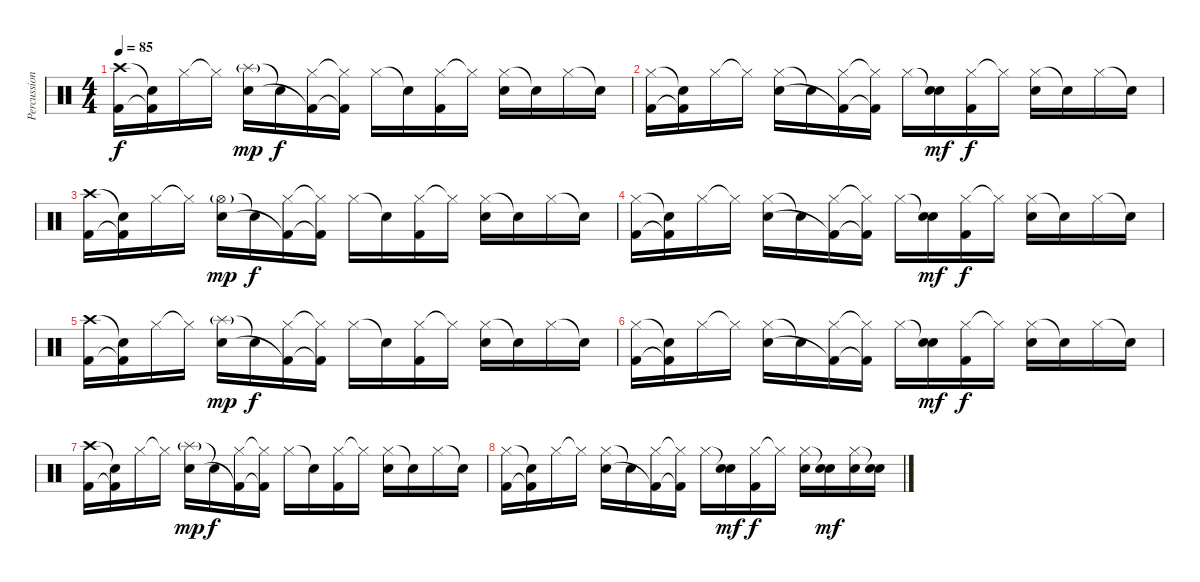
\track ("Percussion" "Percussion") {instrument percussion}
\staff {score}
\articulation defaults
\ts (4 4)
\tempo 85
\clef neutral
\ks c
("Crash high (hit)" "Kick (hit) 2").16{dy f} ("Snare (hit)"{t} "Kick (hit) 2"{t}).16 "Hi-Hat (closed)".16 "Hi-Hat (closed)"{t}.16 ("Splash (hit)"{g} "Snare (hit) 2").16{dy mp} "Snare (hit)"{t}.16{dy f} ("Hi-Hat (closed)" "Kick (hit) 2"{t}).16 ("Hi-Hat (closed)"{t} "Kick (hit) 2"{t}).16 "Hi-Hat (closed)".16 "Snare (hit)"{t}.16 ("Hi-Hat (closed)" "Kick (hit) 2").16 "Hi-Hat (closed)"{t}.16 ("Hi-Hat (closed)" "Snare (hit) 2").16 "Snare (hit)"{t}.16 "Hi-Hat (closed)".16 "Snare (hit)"{t}.16 |
("Hi-Hat (closed)" "Kick (hit) 2").16 ("Snare (hit)"{t} "Kick (hit) 2"{t}).16 "Hi-Hat (closed)".16 "Hi-Hat (closed)"{t}.16 ("Hi-Hat (closed)" "Snare (hit) 2").16 "Snare (hit)"{t}.16 ("Hi-Hat (closed)" "Kick (hit) 2"{t}).16 ("Hi-Hat (closed)"{t} "Kick (hit) 2"{t}).16 "Hi-Hat (closed)".16 ("Snare (hit)"{t} "Snare (hit) 2").16{dy mf} ("Hi-Hat (closed)" "Kick (hit) 2").16{dy f} "Hi-Hat (closed)"{t}.16 ("Hi-Hat (closed)" "Snare (hit) 2").16 "Snare (hit)"{t}.16 "Hi-Hat (closed)".16 "Snare (hit)"{t}.16 |
("Crash high (hit)" "Kick (hit) 2").16 ("Snare (hit)"{t} "Kick (hit) 2"{t}).16 "Hi-Hat (closed)".16 "Hi-Hat (closed)"{t}.16 ("Hi-Hat (open)"{g} "Snare (hit) 2").16{dy mp} "Snare (hit)"{t}.16{dy f} ("Hi-Hat (closed)" "Kick (hit) 2"{t}).16 ("Hi-Hat (closed)"{t} "Kick (hit) 2"{t}).16 "Hi-Hat (closed)".16 "Snare (hit)"{t}.16 ("Hi-Hat (closed)" "Kick (hit) 2").16 "Hi-Hat (closed)"{t}.16 ("Hi-Hat (closed)" "Snare (hit) 2").16 "Snare (hit)"{t}.16 "Hi-Hat (closed)".16 "Snare (hit)"{t}.16 |
("Hi-Hat (closed)" "Kick (hit) 2").16 ("Snare (hit)"{t} "Kick (hit) 2"{t}).16 "Hi-Hat (closed)".16 "Hi-Hat (closed)"{t}.16 ("Hi-Hat (closed)" "Snare (hit) 2").16 "Snare (hit)"{t}.16 ("Hi-Hat (closed)" "Kick (hit) 2"{t}).16 ("Hi-Hat (closed)"{t} "Kick (hit) 2"{t}).16 "Hi-Hat (closed)".16 ("Snare (hit)"{t} "Snare (hit) 2").16{dy mf} ("Hi-Hat (closed)" "Kick (hit) 2").16{dy f} "Hi-Hat (closed)"{t}.16 ("Hi-Hat (closed)" "Snare (hit) 2").16 "Snare (hit)"{t}.16 "Hi-Hat (closed)".16 "Snare (hit)"{t}.16 |
("Crash high (hit)" "Kick (hit) 2").16 ("Snare (hit)"{t} "Kick (hit) 2"{t}).16 "Hi-Hat (closed)".16 "Hi-Hat (closed)"{t}.16 ("Splash (hit)"{g} "Snare (hit) 2").16{dy mp} "Snare (hit)"{t}.16{dy f} ("Hi-Hat (closed)" "Kick (hit) 2"{t}).16 ("Hi-Hat (closed)"{t} "Kick (hit) 2"{t}).16 "Hi-Hat (closed)".16 "Snare (hit)"{t}.16 ("Hi-Hat (closed)" "Kick (hit) 2").16 "Hi-Hat (closed)"{t}.16 ("Hi-Hat (closed)" "Snare (hit) 2").16 "Snare (hit)"{t}.16 "Hi-Hat (closed)".16 "Snare (hit)"{t}.16 |
("Hi-Hat (closed)" "Kick (hit) 2").16 ("Snare (hit)"{t} "Kick (hit) 2"{t}).16 "Hi-Hat (closed)".16 "Hi-Hat (closed)"{t}.16 ("Hi-Hat (closed)" "Snare (hit) 2").16 "Snare (hit)"{t}.16 ("Hi-Hat (closed)" "Kick (hit) 2"{t}).16 ("Hi-Hat (closed)"{t} "Kick (hit) 2"{t}).16 "Hi-Hat (closed)".16 ("Snare (hit)"{t} "Snare (hit) 2").16{dy mf} ("Hi-Hat (closed)" "Kick (hit) 2").16{dy f} "Hi-Hat (closed)"{t}.16 ("Hi-Hat (closed)" "Snare (hit) 2").16 "Snare (hit)"{t}.16 "Hi-Hat (closed)".16 "Snare (hit)"{t}.16 |
("Crash high (hit)" "Kick (hit) 2").16 ("Snare (hit)"{t} "Kick (hit) 2"{t}).16 "Hi-Hat (closed)".16 "Hi-Hat (closed)"{t}.16 ("Splash (hit)"{g} "Snare (hit) 2").16{dy mp} "Snare (hit)"{t}.16{dy f} ("Hi-Hat (closed)" "Kick (hit) 2"{t}).16 ("Hi-Hat (closed)"{t} "Kick (hit) 2"{t}).16 "Hi-Hat (closed)".16 "Snare (hit)"{t}.16 ("Hi-Hat (closed)" "Kick (hit) 2").16 "Hi-Hat (closed)"{t}.16 ("Hi-Hat (closed)" "Snare (hit) 2").16 "Snare (hit)"{t}.16 "Hi-Hat (closed)".16 "Snare (hit)"{t}.16 |
("Hi-Hat (closed)" "Kick (hit) 2").16 ("Snare (hit)"{t} "Kick (hit) 2"{t}).16 "Hi-Hat (closed)".16 "Hi-Hat (closed)"{t}.16 ("Hi-Hat (closed)" "Snare (hit) 2").16 "Snare (hit)"{t}.16 ("Hi-Hat (closed)" "Kick (hit) 2"{t}).16 ("Hi-Hat (closed)"{t} "Kick (hit) 2"{t}).16 "Hi-Hat (closed)".16 ("Snare (hit)"{t} "Snare (hit) 2").16{dy mf} ("Hi-Hat (closed)" "Kick (hit) 2").16{dy f} "Hi-Hat (closed)"{t}.16 ("Hi-Hat (closed)" "Snare (hit) 2").16 ("Snare (hit)"{t} "Snare (hit) 2").16{dy mf} ("Hi-Hat (closed)" "Snare (hit) 2").16 ("Snare (hit)"{t} "Snare (hit) 2").16
